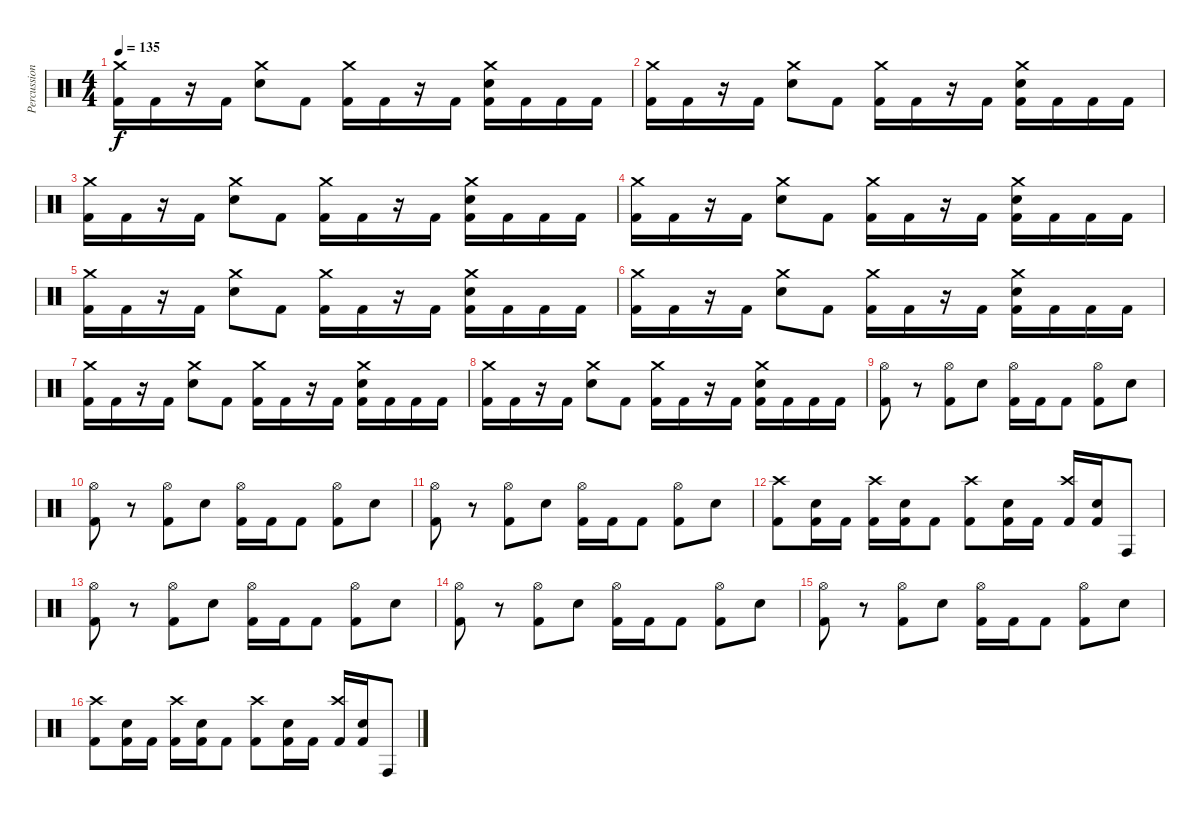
\track ("Percussion" "Percussion") {instrument percussion}
\staff {score}
\articulation defaults
\ts (4 4)
\tempo 135
\clef neutral
\ks c
("Crash medium (hit)" "Kick (hit) 2").16{dy f} "Kick (hit) 2".16 r.16 "Kick (hit) 2".16 ("Crash medium (hit)" "Snare (hit) 2").8 "Kick (hit) 2".8 ("Crash medium (hit)" "Kick (hit) 2").16 "Kick (hit) 2".16 r.16 "Kick (hit) 2".16 ("Crash medium (hit)" "Snare (hit) 2" "Kick (hit) 2").16 "Kick (hit) 2".16 "Kick (hit) 2".16 "Kick (hit) 2".16 |
("Crash medium (hit)" "Kick (hit) 2").16 "Kick (hit) 2".16 r.16 "Kick (hit) 2".16 ("Crash medium (hit)" "Snare (hit) 2").8 "Kick (hit) 2".8 ("Crash medium (hit)" "Kick (hit) 2").16 "Kick (hit) 2".16 r.16 "Kick (hit) 2".16 ("Crash medium (hit)" "Snare (hit) 2" "Kick (hit) 2").16 "Kick (hit) 2".16 "Kick (hit) 2".16 "Kick (hit) 2".16 |
("Crash medium (hit)" "Kick (hit) 2").16 "Kick (hit) 2".16 r.16 "Kick (hit) 2".16 ("Crash medium (hit)" "Snare (hit) 2").8 "Kick (hit) 2".8 ("Crash medium (hit)" "Kick (hit) 2").16 "Kick (hit) 2".16 r.16 "Kick (hit) 2".16 ("Crash medium (hit)" "Snare (hit) 2" "Kick (hit) 2").16 "Kick (hit) 2".16 "Kick (hit) 2".16 "Kick (hit) 2".16 |
("Crash medium (hit)" "Kick (hit) 2").16 "Kick (hit) 2".16 r.16 "Kick (hit) 2".16 ("Crash medium (hit)" "Snare (hit) 2").8 "Kick (hit) 2".8 ("Crash medium (hit)" "Kick (hit) 2").16 "Kick (hit) 2".16 r.16 "Kick (hit) 2".16 ("Crash medium (hit)" "Snare (hit) 2" "Kick (hit) 2").16 "Kick (hit) 2".16 "Kick (hit) 2".16 "Kick (hit) 2".16 |
("Crash medium (hit)" "Kick (hit) 2").16 "Kick (hit) 2".16 r.16 "Kick (hit) 2".16 ("Crash medium (hit)" "Snare (hit) 2").8 "Kick (hit) 2".8 ("Crash medium (hit)" "Kick (hit) 2").16 "Kick (hit) 2".16 r.16 "Kick (hit) 2".16 ("Crash medium (hit)" "Snare (hit) 2" "Kick (hit) 2").16 "Kick (hit) 2".16 "Kick (hit) 2".16 "Kick (hit) 2".16 |
("Crash medium (hit)" "Kick (hit) 2").16 "Kick (hit) 2".16 r.16 "Kick (hit) 2".16 ("Crash medium (hit)" "Snare (hit) 2").8 "Kick (hit) 2".8 ("Crash medium (hit)" "Kick (hit) 2").16 "Kick (hit) 2".16 r.16 "Kick (hit) 2".16 ("Crash medium (hit)" "Snare (hit) 2" "Kick (hit) 2").16 "Kick (hit) 2".16 "Kick (hit) 2".16 "Kick (hit) 2".16 |
("Crash medium (hit)" "Kick (hit) 2").16 "Kick (hit) 2".16 r.16 "Kick (hit) 2".16 ("Crash medium (hit)" "Snare (hit) 2").8 "Kick (hit) 2".8 ("Crash medium (hit)" "Kick (hit) 2").16 "Kick (hit) 2".16 r.16 "Kick (hit) 2".16 ("Crash medium (hit)" "Snare (hit) 2" "Kick (hit) 2").16 "Kick (hit) 2".16 "Kick (hit) 2".16 "Kick (hit) 2".16 |
("Crash medium (hit)" "Kick (hit) 2").16 "Kick (hit) 2".16 r.16 "Kick (hit) 2".16 ("Crash medium (hit)" "Snare (hit) 2").8 "Kick (hit) 2".8 ("Crash medium (hit)" "Kick (hit) 2").16 "Kick (hit) 2".16 r.16 "Kick (hit) 2".16 ("Crash medium (hit)" "Snare (hit) 2" "Kick (hit) 2").16 "Kick (hit) 2".16 "Kick (hit) 2".16 "Kick (hit) 2".16 |
("Hi-Hat (open)" "Kick (hit) 2").8 r.8 ("Hi-Hat (open)" "Kick (hit) 2").8 "Snare (hit) 2".8 ("Hi-Hat (open)" "Kick (hit) 2").16 "Kick (hit) 2".16 "Kick (hit) 2".8 ("Hi-Hat (open)" "Kick (hit) 2").8 "Snare (hit) 2".8 |
("Hi-Hat (open)" "Kick (hit) 2").8 r.8 ("Hi-Hat (open)" "Kick (hit) 2").8 "Snare (hit) 2".8 ("Hi-Hat (open)" "Kick (hit) 2").16 "Kick (hit) 2".16 "Kick (hit) 2".8 ("Hi-Hat (open)" "Kick (hit) 2").8 "Snare (hit) 2".8 |
("Hi-Hat (open)" "Kick (hit) 2").8 r.8 ("Hi-Hat (open)" "Kick (hit) 2").8 "Snare (hit) 2".8 ("Hi-Hat (open)" "Kick (hit) 2").16 "Kick (hit) 2".16 "Kick (hit) 2".8 ("Hi-Hat (open)" "Kick (hit) 2").8 "Snare (hit) 2".8 |
("Crash high (hit)" "Kick (hit) 2").8 ("Snare (hit) 2" "Kick (hit) 2").16 "Kick (hit) 2".16 ("Crash high (hit)" "Kick (hit) 2").16 ("Snare (hit) 2" "Kick (hit) 2").16 "Kick (hit) 2".8 ("Crash high (hit)" "Kick (hit) 2").8 ("Snare (hit) 2" "Kick (hit) 2").16 "Kick (hit) 2".16 ("Crash high (hit)" "Kick (hit) 2").16 ("Snare (hit) 2" "Kick (hit) 2").16 "Conga high (hit)".8 |
("Hi-Hat (open)" "Kick (hit) 2").8 r.8 ("Hi-Hat (open)" "Kick (hit) 2").8 "Snare (hit) 2".8 ("Hi-Hat (open)" "Kick (hit) 2").16 "Kick (hit) 2".16 "Kick (hit) 2".8 ("Hi-Hat (open)" "Kick (hit) 2").8 "Snare (hit) 2".8 |
("Hi-Hat (open)" "Kick (hit) 2").8 r.8 ("Hi-Hat (open)" "Kick (hit) 2").8 "Snare (hit) 2".8 ("Hi-Hat (open)" "Kick (hit) 2").16 "Kick (hit) 2".16 "Kick (hit) 2".8 ("Hi-Hat (open)" "Kick (hit) 2").8 "Snare (hit) 2".8 |
("Hi-Hat (open)" "Kick (hit) 2").8 r.8 ("Hi-Hat (open)" "Kick (hit) 2").8 "Snare (hit) 2".8 ("Hi-Hat (open)" "Kick (hit) 2").16 "Kick (hit) 2".16 "Kick (hit) 2".8 ("Hi-Hat (open)" "Kick (hit) 2").8 "Snare (hit) 2".8 |
("Crash high (hit)" "Kick (hit) 2").8 ("Snare (hit) 2" "Kick (hit) 2").16 "Kick (hit) 2".16 ("Crash high (hit)" "Kick (hit) 2").16 ("Snare (hit) 2" "Kick (hit) 2").16 "Kick (hit) 2".8 ("Crash high (hit)" "Kick (hit) 2").8 ("Snare (hit) 2" "Kick (hit) 2").16 "Kick (hit) 2".16 ("Crash high (hit)" "Kick (hit) 2").16 ("Snare (hit) 2" "Kick (hit) 2").16 "Conga high (hit)".8
